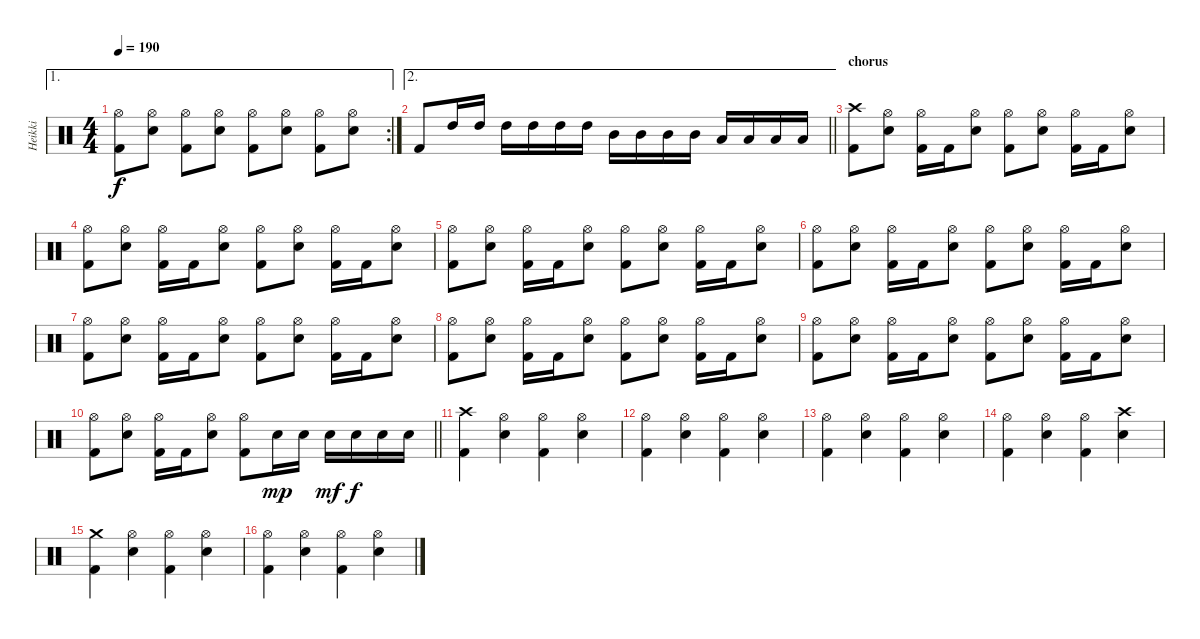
\track ("Heikki" "Heikki") {instrument percussion}
\staff {score}
\articulation defaults
\ae 1
\rc 2
\ts (4 4)
\tempo 190
\clef neutral
\ks c
("Hi-Hat (open)" "Kick (hit) 2").8{dy f} ("Hi-Hat (open)" "Electric Snare (hit)").8 ("Hi-Hat (open)" "Kick (hit) 2").8 ("Hi-Hat (open)" "Electric Snare (hit)").8 ("Hi-Hat (open)" "Kick (hit) 2").8 ("Hi-Hat (open)" "Electric Snare (hit)").8 ("Hi-Hat (open)" "Kick (hit) 2").8 ("Hi-Hat (open)" "Electric Snare (hit)").8 |
\ae 2
\barLineRight lightlight "Kick (hit) 2".8 "High Tom (hit)".16 "High Tom (hit)".16 "High Tom (hit)".16 "High Tom (hit)".16 "High Tom (hit)".16 "High Tom (hit)".16 "Mid Tom (hit)".16 "Mid Tom (hit)".16 "Mid Tom (hit)".16 "Mid Tom (hit)".16 "Low Tom (hit)".16 "Low Tom (hit)".16 "Low Tom (hit)".16 "Low Tom (hit)".16
|
\section ("" "chorus")
("Crash high (hit)" "Kick (hit) 2").8 ("Hi-Hat (open)" "Electric Snare (hit)").8 ("Hi-Hat (open)" "Kick (hit) 2").16 "Kick (hit) 2".16 ("Hi-Hat (open)" "Electric Snare (hit)").8 ("Hi-Hat (open)" "Kick (hit) 2").8 ("Hi-Hat (open)" "Electric Snare (hit)").8 ("Hi-Hat (open)" "Kick (hit) 2").16 "Kick (hit) 2".16 ("Hi-Hat (open)" "Electric Snare (hit)").8 |
("Hi-Hat (open)" "Kick (hit) 2").8 ("Hi-Hat (open)" "Electric Snare (hit)").8 ("Hi-Hat (open)" "Kick (hit) 2").16 "Kick (hit) 2".16 ("Hi-Hat (open)" "Electric Snare (hit)").8 ("Hi-Hat (open)" "Kick (hit) 2").8 ("Hi-Hat (open)" "Electric Snare (hit)").8 ("Hi-Hat (open)" "Kick (hit) 2").16 "Kick (hit) 2".16 ("Hi-Hat (open)" "Electric Snare (hit)").8 |
("Hi-Hat (open)" "Kick (hit) 2").8 ("Hi-Hat (open)" "Electric Snare (hit)").8 ("Hi-Hat (open)" "Kick (hit) 2").16 "Kick (hit) 2".16 ("Hi-Hat (open)" "Electric Snare (hit)").8 ("Hi-Hat (open)" "Kick (hit) 2").8 ("Hi-Hat (open)" "Electric Snare (hit)").8 ("Hi-Hat (open)" "Kick (hit) 2").16 "Kick (hit) 2".16 ("Hi-Hat (open)" "Electric Snare (hit)").8 |
("Hi-Hat (open)" "Kick (hit) 2").8 ("Hi-Hat (open)" "Electric Snare (hit)").8 ("Hi-Hat (open)" "Kick (hit) 2").16 "Kick (hit) 2".16 ("Hi-Hat (open)" "Electric Snare (hit)").8 ("Hi-Hat (open)" "Kick (hit) 2").8 ("Hi-Hat (open)" "Electric Snare (hit)").8 ("Hi-Hat (open)" "Kick (hit) 2").16 "Kick (hit) 2".16 ("Hi-Hat (open)" "Electric Snare (hit)").8 |
("Hi-Hat (open)" "Kick (hit) 2").8 ("Hi-Hat (open)" "Electric Snare (hit)").8 ("Hi-Hat (open)" "Kick (hit) 2").16 "Kick (hit) 2".16 ("Hi-Hat (open)" "Electric Snare (hit)").8 ("Hi-Hat (open)" "Kick (hit) 2").8 ("Hi-Hat (open)" "Electric Snare (hit)").8 ("Hi-Hat (open)" "Kick (hit) 2").16 "Kick (hit) 2".16 ("Hi-Hat (open)" "Electric Snare (hit)").8 |
("Hi-Hat (open)" "Kick (hit) 2").8 ("Hi-Hat (open)" "Electric Snare (hit)").8 ("Hi-Hat (open)" "Kick (hit) 2").16 "Kick (hit) 2".16 ("Hi-Hat (open)" "Electric Snare (hit)").8 ("Hi-Hat (open)" "Kick (hit) 2").8 ("Hi-Hat (open)" "Electric Snare (hit)").8 ("Hi-Hat (open)" "Kick (hit) 2").16 "Kick (hit) 2".16 ("Hi-Hat (open)" "Electric Snare (hit)").8 |
("Hi-Hat (open)" "Kick (hit) 2").8 ("Hi-Hat (open)" "Electric Snare (hit)").8 ("Hi-Hat (open)" "Kick (hit) 2").16 "Kick (hit) 2".16 ("Hi-Hat (open)" "Electric Snare (hit)").8 ("Hi-Hat (open)" "Kick (hit) 2").8 ("Hi-Hat (open)" "Electric Snare (hit)").8 ("Hi-Hat (open)" "Kick (hit) 2").16 "Kick (hit) 2".16 ("Hi-Hat (open)" "Electric Snare (hit)").8 |
\barLineRight lightlight
("Hi-Hat (open)" "Kick (hit) 2").8 ("Hi-Hat (open)" "Electric Snare (hit)").8 ("Hi-Hat (open)" "Kick (hit) 2").16 "Kick (hit) 2".16 ("Hi-Hat (open)" "Electric Snare (hit)").8 ("Hi-Hat (open)" "Kick (hit) 2").8 "Electric Snare (hit)".16{dy mp} "Electric Snare (hit)".16 "Electric Snare (hit)".16{dy mf} "Electric Snare (hit)".16{dy f} "Electric Snare (hit)".16 "Electric Snare (hit)".16 |
\section ("" "")
("Crash high (hit)" "Kick (hit) 2").4 ("Hi-Hat (open)" "Electric Snare (hit)").4 ("Hi-Hat (open)" "Kick (hit) 2").4 ("Hi-Hat (open)" "Electric Snare (hit)").4 |
("Hi-Hat (open)" "Kick (hit) 2").4 ("Hi-Hat (open)" "Electric Snare (hit)").4 ("Hi-Hat (open)" "Kick (hit) 2").4 ("Hi-Hat (open)" "Electric Snare (hit)").4 |
("Hi-Hat (open)" "Kick (hit) 2").4 ("Hi-Hat (open)" "Electric Snare (hit)").4 ("Hi-Hat (open)" "Kick (hit) 2").4 ("Hi-Hat (open)" "Electric Snare (hit)").4 |
("Hi-Hat (open)" "Kick (hit) 2").4 ("Hi-Hat (open)" "Electric Snare (hit)").4 ("Hi-Hat (open)" "Kick (hit) 2").4 ("Crash high (hit)" "Electric Snare (hit)").4 |
("Crash medium (hit)" "Kick (hit) 2").4 ("Hi-Hat (open)" "Electric Snare (hit)").4 ("Hi-Hat (open)" "Kick (hit) 2").4 ("Hi-Hat (open)" "Electric Snare (hit)").4 |
("Hi-Hat (open)" "Kick (hit) 2").4 ("Hi-Hat (open)" "Electric Snare (hit)").4 ("Hi-Hat (open)" "Kick (hit) 2").4 ("Hi-Hat (open)" "Electric Snare (hit)").4
